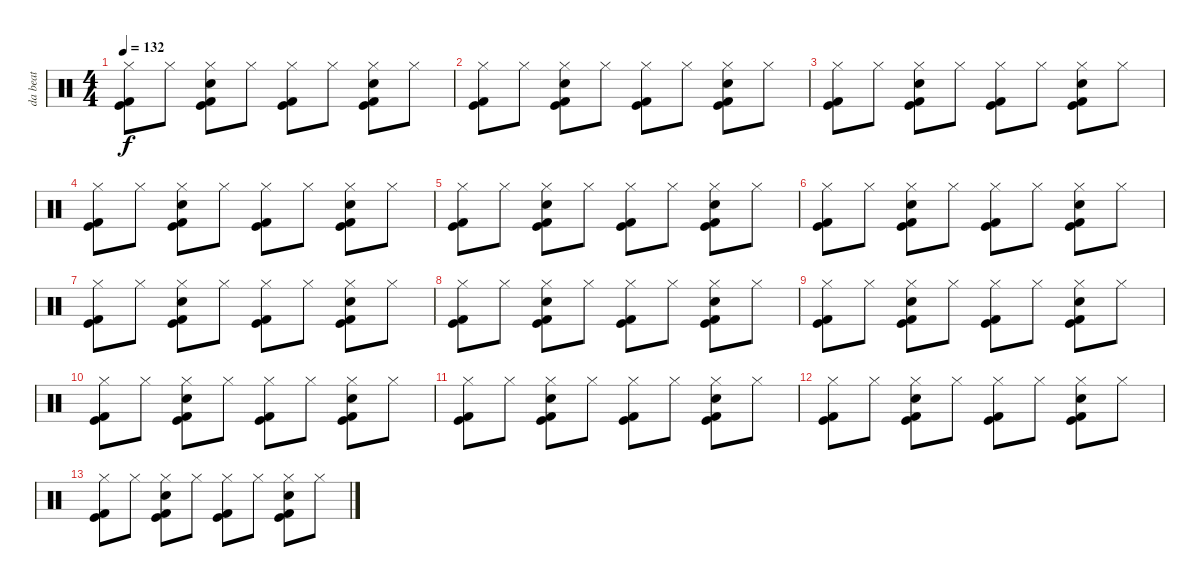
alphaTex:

\track ("da beat" "da beat") {instrument percussion}
\staff {score}
\articulation defaults
\ts (4 4)
\tempo 132
\clef neutral
\ks c
("Hi-Hat (closed)" "Kick (hit)" "Kick (hit) 2").8{dy f} "Hi-Hat (closed)".8 ("Hi-Hat (closed)" "Electric Snare (hit)" "Kick (hit)" "Kick (hit) 2").8 "Hi-Hat (closed)".8 ("Hi-Hat (closed)" "Kick (hit)" "Kick (hit) 2").8 "Hi-Hat (closed)".8 ("Hi-Hat (closed)" "Electric Snare (hit)" "Kick (hit)" "Kick (hit) 2").8 "Hi-Hat (closed)".8 |
("Hi-Hat (closed)" "Kick (hit)" "Kick (hit) 2").8 "Hi-Hat (closed)".8 ("Hi-Hat (closed)" "Electric Snare (hit)" "Kick (hit)" "Kick (hit) 2").8 "Hi-Hat (closed)".8 ("Hi-Hat (closed)" "Kick (hit)" "Kick (hit) 2").8 "Hi-Hat (closed)".8 ("Hi-Hat (closed)" "Electric Snare (hit)" "Kick (hit)" "Kick (hit) 2").8 "Hi-Hat (closed)".8 |
("Hi-Hat (closed)" "Kick (hit)" "Kick (hit) 2").8 "Hi-Hat (closed)".8 ("Hi-Hat (closed)" "Electric Snare (hit)" "Kick (hit)" "Kick (hit) 2").8 "Hi-Hat (closed)".8 ("Hi-Hat (closed)" "Kick (hit)" "Kick (hit) 2").8 "Hi-Hat (closed)".8 ("Hi-Hat (closed)" "Electric Snare (hit)" "Kick (hit)" "Kick (hit) 2").8 "Hi-Hat (closed)".8 |
("Hi-Hat (closed)" "Kick (hit)" "Kick (hit) 2").8 "Hi-Hat (closed)".8 ("Hi-Hat (closed)" "Electric Snare (hit)" "Kick (hit)" "Kick (hit) 2").8 "Hi-Hat (closed)".8 ("Hi-Hat (closed)" "Kick (hit)" "Kick (hit) 2").8 "Hi-Hat (closed)".8 ("Hi-Hat (closed)" "Electric Snare (hit)" "Kick (hit)" "Kick (hit) 2").8 "Hi-Hat (closed)".8 |
("Hi-Hat (closed)" "Kick (hit)" "Kick (hit) 2").8 "Hi-Hat (closed)".8 ("Hi-Hat (closed)" "Electric Snare (hit)" "Kick (hit)" "Kick (hit) 2").8 "Hi-Hat (closed)".8 ("Hi-Hat (closed)" "Kick (hit)" "Kick (hit) 2").8 "Hi-Hat (closed)".8 ("Hi-Hat (closed)" "Electric Snare (hit)" "Kick (hit)" "Kick (hit) 2").8 "Hi-Hat (closed)".8 |
("Hi-Hat (closed)" "Kick (hit)" "Kick (hit) 2").8 "Hi-Hat (closed)".8 ("Hi-Hat (closed)" "Electric Snare (hit)" "Kick (hit)" "Kick (hit) 2").8 "Hi-Hat (closed)".8 ("Hi-Hat (closed)" "Kick (hit)" "Kick (hit) 2").8 "Hi-Hat (closed)".8 ("Hi-Hat (closed)" "Electric Snare (hit)" "Kick (hit)" "Kick (hit) 2").8 "Hi-Hat (closed)".8 |
("Hi-Hat (closed)" "Kick (hit)" "Kick (hit) 2").8 "Hi-Hat (closed)".8 ("Hi-Hat (closed)" "Electric Snare (hit)" "Kick (hit)" "Kick (hit) 2").8 "Hi-Hat (closed)".8 ("Hi-Hat (closed)" "Kick (hit)" "Kick (hit) 2").8 "Hi-Hat (closed)".8 ("Hi-Hat (closed)" "Electric Snare (hit)" "Kick (hit)" "Kick (hit) 2").8 "Hi-Hat (closed)".8 |
("Hi-Hat (closed)" "Kick (hit)" "Kick (hit) 2").8 "Hi-Hat (closed)".8 ("Hi-Hat (closed)" "Electric Snare (hit)" "Kick (hit)" "Kick (hit) 2").8 "Hi-Hat (closed)".8 ("Hi-Hat (closed)" "Kick (hit)" "Kick (hit) 2").8 "Hi-Hat (closed)".8 ("Hi-Hat (closed)" "Electric Snare (hit)" "Kick (hit)" "Kick (hit) 2").8 "Hi-Hat (closed)".8 |
("Hi-Hat (closed)" "Kick (hit)" "Kick (hit) 2").8 "Hi-Hat (closed)".8 ("Hi-Hat (closed)" "Electric Snare (hit)" "Kick (hit)" "Kick (hit) 2").8 "Hi-Hat (closed)".8 ("Hi-Hat (closed)" "Kick (hit)" "Kick (hit) 2").8 "Hi-Hat (closed)".8 ("Hi-Hat (closed)" "Electric Snare (hit)" "Kick (hit)" "Kick (hit) 2").8 "Hi-Hat (closed)".8 |
("Hi-Hat (closed)" "Kick (hit)" "Kick (hit) 2").8 "Hi-Hat (closed)".8 ("Hi-Hat (closed)" "Electric Snare (hit)" "Kick (hit)" "Kick (hit) 2").8 "Hi-Hat (closed)".8 ("Hi-Hat (closed)" "Kick (hit)" "Kick (hit) 2").8 "Hi-Hat (closed)".8 ("Hi-Hat (closed)" "Electric Snare (hit)" "Kick (hit)" "Kick (hit) 2").8 "Hi-Hat (closed)".8 |
("Hi-Hat (closed)" "Kick (hit)" "Kick (hit) 2").8 "Hi-Hat (closed)".8 ("Hi-Hat (closed)" "Electric Snare (hit)" "Kick (hit)" "Kick (hit) 2").8 "Hi-Hat (closed)".8 ("Hi-Hat (closed)" "Kick (hit)" "Kick (hit) 2").8 "Hi-Hat (closed)".8 ("Hi-Hat (closed)" "Electric Snare (hit)" "Kick (hit)" "Kick (hit) 2").8 "Hi-Hat (closed)".8 |
("Hi-Hat (closed)" "Kick (hit)" "Kick (hit) 2").8 "Hi-Hat (closed)".8 ("Hi-Hat (closed)" "Electric Snare (hit)" "Kick (hit)" "Kick (hit) 2").8 "Hi-Hat (closed)".8 ("Hi-Hat (closed)" "Kick (hit)" "Kick (hit) 2").8 "Hi-Hat (closed)".8 ("Hi-Hat (closed)" "Electric Snare (hit)" "Kick (hit)" "Kick (hit) 2").8 "Hi-Hat (closed)".8 |
("Hi-Hat (closed)" "Kick (hit)" "Kick (hit) 2").8 "Hi-Hat (closed)".8 ("Hi-Hat (closed)" "Electric Snare (hit)" "Kick (hit)" "Kick (hit) 2").8 "Hi-Hat (closed)".8 ("Hi-Hat (closed)" "Kick (hit)" "Kick (hit) 2").8 "Hi-Hat (closed)".8 ("Hi-Hat (closed)" "Electric Snare (hit)" "Kick (hit)" "Kick (hit) 2").8 "Hi-Hat (closed)".8
